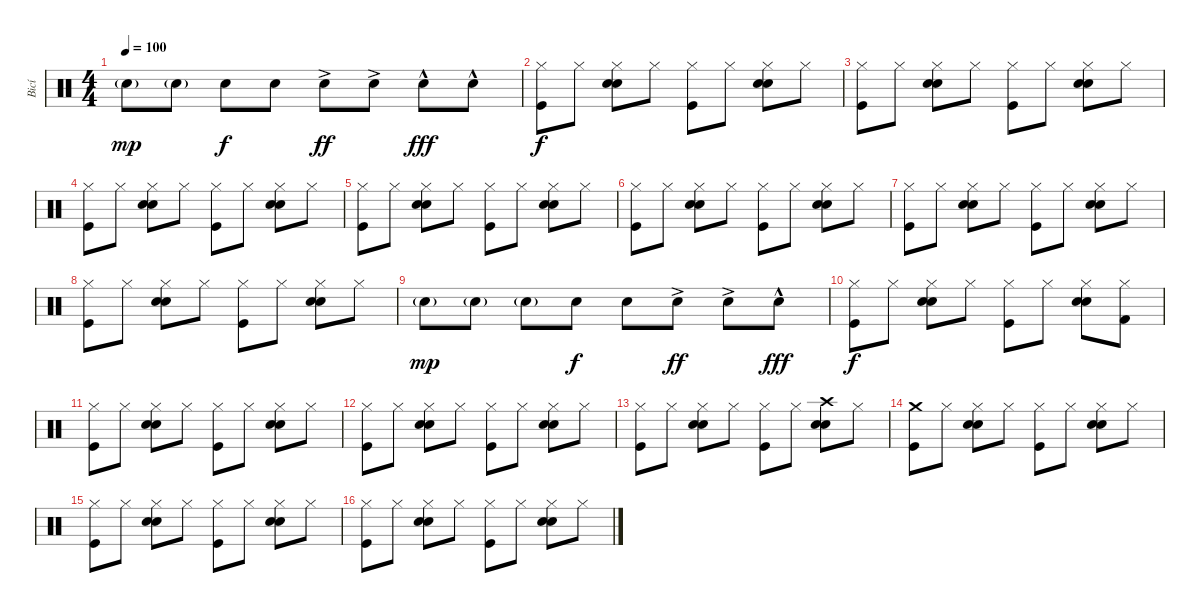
\track ("Bicí" "Bicí") {instrument percussion}
\staff {score}
\articulation defaults
\ts (4 4)
\tempo 100
\clef neutral
\ks c "Electric Snare (hit)"{g}.8{dy mp} "Electric Snare (hit)"{g}.8 "Electric Snare (hit)".8{dy f} "Electric Snare (hit)".8 "Electric Snare (hit)"{ac}.8{dy ff} "Electric Snare (hit)"{ac}.8 "Electric Snare (hit)"{hac}.8{dy fff} "Electric Snare (hit)"{hac}.8
|
("Hi-Hat (closed)" "Kick (hit)").8{dy f} "Hi-Hat (closed)".8 ("Hi-Hat (closed)" "Hand Clap (hit)" "Electric Snare (hit)").8 "Hi-Hat (closed)".8 ("Hi-Hat (closed)" "Kick (hit)").8 "Hi-Hat (closed)".8 ("Hi-Hat (closed)" "Hand Clap (hit)" "Electric Snare (hit)").8 "Hi-Hat (closed)".8 |
("Hi-Hat (closed)" "Kick (hit)").8 "Hi-Hat (closed)".8 ("Hi-Hat (closed)" "Hand Clap (hit)" "Electric Snare (hit)").8 "Hi-Hat (closed)".8 ("Hi-Hat (closed)" "Kick (hit)").8 "Hi-Hat (closed)".8 ("Hi-Hat (closed)" "Hand Clap (hit)" "Electric Snare (hit)").8 "Hi-Hat (closed)".8 |
("Hi-Hat (closed)" "Kick (hit)").8 "Hi-Hat (closed)".8 ("Hi-Hat (closed)" "Hand Clap (hit)" "Electric Snare (hit)").8 "Hi-Hat (closed)".8 ("Hi-Hat (closed)" "Kick (hit)").8 "Hi-Hat (closed)".8 ("Hi-Hat (closed)" "Hand Clap (hit)" "Electric Snare (hit)").8 "Hi-Hat (closed)".8 |
("Hi-Hat (closed)" "Kick (hit)").8 "Hi-Hat (closed)".8 ("Hi-Hat (closed)" "Hand Clap (hit)" "Electric Snare (hit)").8 "Hi-Hat (closed)".8 ("Hi-Hat (closed)" "Kick (hit)").8 "Hi-Hat (closed)".8 ("Hi-Hat (closed)" "Hand Clap (hit)" "Electric Snare (hit)").8 "Hi-Hat (closed)".8 |
("Hi-Hat (closed)" "Kick (hit)").8 "Hi-Hat (closed)".8 ("Hi-Hat (closed)" "Hand Clap (hit)" "Electric Snare (hit)").8 "Hi-Hat (closed)".8 ("Hi-Hat (closed)" "Kick (hit)").8 "Hi-Hat (closed)".8 ("Hi-Hat (closed)" "Hand Clap (hit)" "Electric Snare (hit)").8 "Hi-Hat (closed)".8 |
("Hi-Hat (closed)" "Kick (hit)").8 "Hi-Hat (closed)".8 ("Hi-Hat (closed)" "Hand Clap (hit)" "Electric Snare (hit)").8 "Hi-Hat (closed)".8 ("Hi-Hat (closed)" "Kick (hit)").8 "Hi-Hat (closed)".8 ("Hi-Hat (closed)" "Hand Clap (hit)" "Electric Snare (hit)").8 "Hi-Hat (closed)".8 |
("Hi-Hat (closed)" "Kick (hit)").8 "Hi-Hat (closed)".8 ("Hi-Hat (closed)" "Hand Clap (hit)" "Electric Snare (hit)").8 "Hi-Hat (closed)".8 ("Hi-Hat (closed)" "Kick (hit)").8 "Hi-Hat (closed)".8 ("Hi-Hat (closed)" "Hand Clap (hit)" "Electric Snare (hit)").8 "Hi-Hat (closed)".8 |
"Electric Snare (hit)"{g}.8{dy mp} "Electric Snare (hit)"{g}.8 "Electric Snare (hit)"{g}.8 "Electric Snare (hit)".8{dy f} "Electric Snare (hit)".8 "Electric Snare (hit)"{ac}.8{dy ff} "Electric Snare (hit)"{ac}.8 "Electric Snare (hit)"{hac}.8{dy fff} |
("Hi-Hat (closed)" "Kick (hit)").8{dy f} "Hi-Hat (closed)".8 ("Hi-Hat (closed)" "Hand Clap (hit)" "Electric Snare (hit)").8 "Hi-Hat (closed)".8 ("Hi-Hat (closed)" "Kick (hit)").8 "Hi-Hat (closed)".8 ("Hi-Hat (closed)" "Hand Clap (hit)" "Electric Snare (hit)").8 ("Hi-Hat (closed)" "Kick (hit) 2").8 |
("Hi-Hat (closed)" "Kick (hit)").8 "Hi-Hat (closed)".8 ("Hi-Hat (closed)" "Hand Clap (hit)" "Electric Snare (hit)").8 "Hi-Hat (closed)".8 ("Hi-Hat (closed)" "Kick (hit)").8 "Hi-Hat (closed)".8 ("Hi-Hat (closed)" "Hand Clap (hit)" "Electric Snare (hit)").8 "Hi-Hat (closed)".8 |
("Hi-Hat (closed)" "Kick (hit)").8 "Hi-Hat (closed)".8 ("Hi-Hat (closed)" "Hand Clap (hit)" "Electric Snare (hit)").8 "Hi-Hat (closed)".8 ("Hi-Hat (closed)" "Kick (hit)").8 "Hi-Hat (closed)".8 ("Hi-Hat (closed)" "Hand Clap (hit)" "Electric Snare (hit)").8 "Hi-Hat (closed)".8 |
("Hi-Hat (closed)" "Kick (hit)").8 "Hi-Hat (closed)".8 ("Hi-Hat (closed)" "Hand Clap (hit)" "Electric Snare (hit)").8 "Hi-Hat (closed)".8 ("Hi-Hat (closed)" "Kick (hit)").8 "Hi-Hat (closed)".8 ("Crash high (hit)" "Hand Clap (hit)" "Electric Snare (hit)").8 "Hi-Hat (closed)".8 |
("Crash medium (hit)" "Kick (hit)").8 "Hi-Hat (closed)".8 ("Hi-Hat (closed)" "Hand Clap (hit)" "Electric Snare (hit)").8 "Hi-Hat (closed)".8 ("Hi-Hat (closed)" "Kick (hit)").8 "Hi-Hat (closed)".8 ("Hi-Hat (closed)" "Hand Clap (hit)" "Electric Snare (hit)").8 "Hi-Hat (closed)".8 |
("Hi-Hat (closed)" "Kick (hit)").8 "Hi-Hat (closed)".8 ("Hi-Hat (closed)" "Hand Clap (hit)" "Electric Snare (hit)").8 "Hi-Hat (closed)".8 ("Hi-Hat (closed)" "Kick (hit)").8 "Hi-Hat (closed)".8 ("Hi-Hat (closed)" "Hand Clap (hit)" "Electric Snare (hit)").8 "Hi-Hat (closed)".8 |
("Hi-Hat (closed)" "Kick (hit)").8 "Hi-Hat (closed)".8 ("Hi-Hat (closed)" "Hand Clap (hit)" "Electric Snare (hit)").8 "Hi-Hat (closed)".8 ("Hi-Hat (closed)" "Kick (hit)").8 "Hi-Hat (closed)".8 ("Hi-Hat (closed)" "Hand Clap (hit)" "Electric Snare (hit)").8 "Hi-Hat (closed)".8
